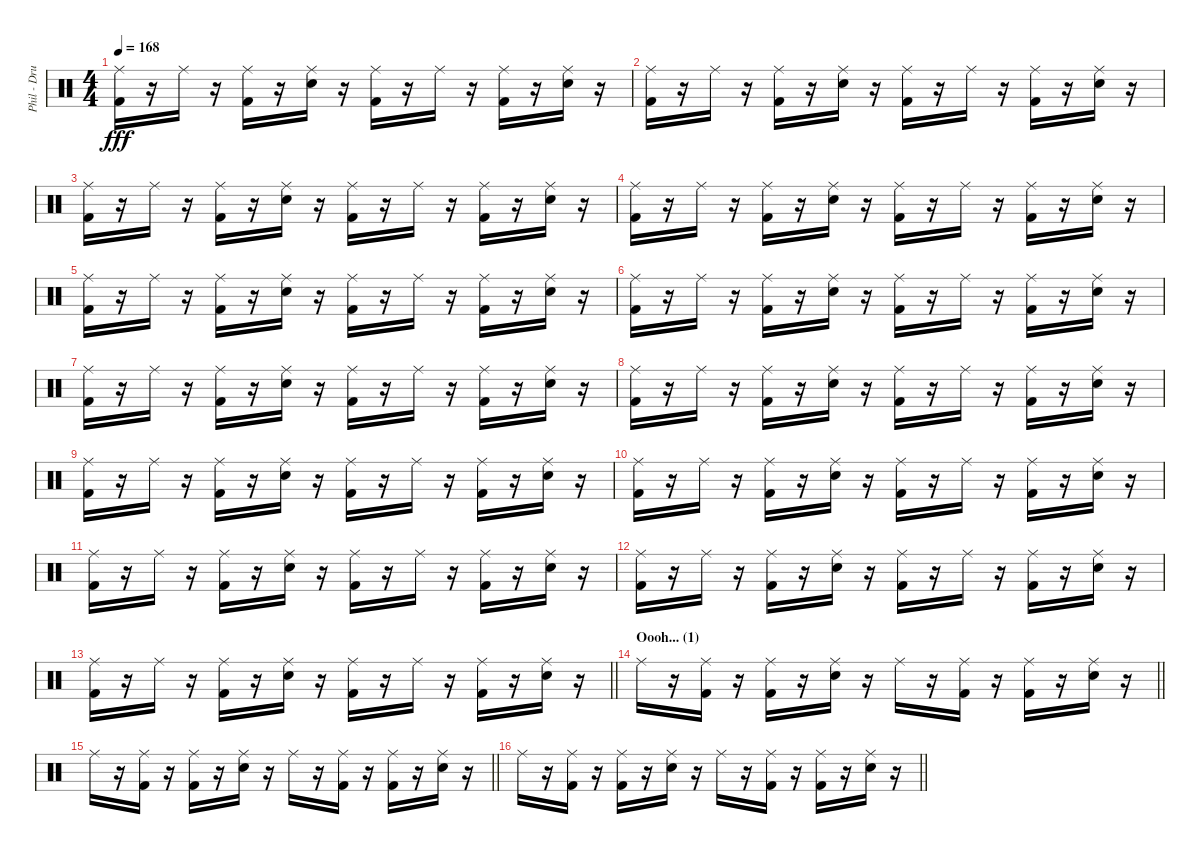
\track ("Phil - Drums" "Phil - Dru") {instrument percussion}
\staff {score}
\articulation defaults
\ts (4 4)
\tempo 168
\clef neutral
\ks c
("Ride (middle)" "Kick (hit) 2").16{dy fff} r.16 "Ride (middle)".16 r.16 ("Ride (middle)" "Kick (hit) 2").16 r.16 ("Ride (middle)" "Electric Snare (hit)").16 r.16 ("Ride (middle)" "Kick (hit) 2").16 r.16 "Ride (middle)".16 r.16 ("Ride (middle)" "Kick (hit) 2").16 r.16 ("Ride (middle)" "Electric Snare (hit)").16 r.16 |
("Ride (middle)" "Kick (hit) 2").16 r.16 "Ride (middle)".16 r.16 ("Ride (middle)" "Kick (hit) 2").16 r.16 ("Ride (middle)" "Electric Snare (hit)").16 r.16 ("Ride (middle)" "Kick (hit) 2").16 r.16 "Ride (middle)".16 r.16 ("Ride (middle)" "Kick (hit) 2").16 r.16 ("Ride (middle)" "Electric Snare (hit)").16 r.16 |
("Ride (middle)" "Kick (hit) 2").16 r.16 "Ride (middle)".16 r.16 ("Ride (middle)" "Kick (hit) 2").16 r.16 ("Ride (middle)" "Electric Snare (hit)").16 r.16 ("Ride (middle)" "Kick (hit) 2").16 r.16 "Ride (middle)".16 r.16 ("Ride (middle)" "Kick (hit) 2").16 r.16 ("Ride (middle)" "Electric Snare (hit)").16 r.16 |
("Ride (middle)" "Kick (hit) 2").16 r.16 "Ride (middle)".16 r.16 ("Ride (middle)" "Kick (hit) 2").16 r.16 ("Ride (middle)" "Electric Snare (hit)").16 r.16 ("Ride (middle)" "Kick (hit) 2").16 r.16 "Ride (middle)".16 r.16 ("Ride (middle)" "Kick (hit) 2").16 r.16 ("Ride (middle)" "Electric Snare (hit)").16 r.16 |
("Ride (middle)" "Kick (hit) 2").16 r.16 "Ride (middle)".16 r.16 ("Ride (middle)" "Kick (hit) 2").16 r.16 ("Ride (middle)" "Electric Snare (hit)").16 r.16 ("Ride (middle)" "Kick (hit) 2").16 r.16 "Ride (middle)".16 r.16 ("Ride (middle)" "Kick (hit) 2").16 r.16 ("Ride (middle)" "Electric Snare (hit)").16 r.16 |
("Ride (middle)" "Kick (hit) 2").16 r.16 "Ride (middle)".16 r.16 ("Ride (middle)" "Kick (hit) 2").16 r.16 ("Ride (middle)" "Electric Snare (hit)").16 r.16 ("Ride (middle)" "Kick (hit) 2").16 r.16 "Ride (middle)".16 r.16 ("Ride (middle)" "Kick (hit) 2").16 r.16 ("Ride (middle)" "Electric Snare (hit)").16 r.16 |
("Ride (middle)" "Kick (hit) 2").16 r.16 "Ride (middle)".16 r.16 ("Ride (middle)" "Kick (hit) 2").16 r.16 ("Ride (middle)" "Electric Snare (hit)").16 r.16 ("Ride (middle)" "Kick (hit) 2").16 r.16 "Ride (middle)".16 r.16 ("Ride (middle)" "Kick (hit) 2").16 r.16 ("Ride (middle)" "Electric Snare (hit)").16 r.16 |
("Ride (middle)" "Kick (hit) 2").16 r.16 "Ride (middle)".16 r.16 ("Ride (middle)" "Kick (hit) 2").16 r.16 ("Ride (middle)" "Electric Snare (hit)").16 r.16 ("Ride (middle)" "Kick (hit) 2").16 r.16 "Ride (middle)".16 r.16 ("Ride (middle)" "Kick (hit) 2").16 r.16 ("Ride (middle)" "Electric Snare (hit)").16 r.16 |
("Ride (middle)" "Kick (hit) 2").16 r.16 "Ride (middle)".16 r.16 ("Ride (middle)" "Kick (hit) 2").16 r.16 ("Ride (middle)" "Electric Snare (hit)").16 r.16 ("Ride (middle)" "Kick (hit) 2").16 r.16 "Ride (middle)".16 r.16 ("Ride (middle)" "Kick (hit) 2").16 r.16 ("Ride (middle)" "Electric Snare (hit)").16 r.16 |
("Ride (middle)" "Kick (hit) 2").16 r.16 "Ride (middle)".16 r.16 ("Ride (middle)" "Kick (hit) 2").16 r.16 ("Ride (middle)" "Electric Snare (hit)").16 r.16 ("Ride (middle)" "Kick (hit) 2").16 r.16 "Ride (middle)".16 r.16 ("Ride (middle)" "Kick (hit) 2").16 r.16 ("Ride (middle)" "Electric Snare (hit)").16 r.16 |
("Ride (middle)" "Kick (hit) 2").16 r.16 "Ride (middle)".16 r.16 ("Ride (middle)" "Kick (hit) 2").16 r.16 ("Ride (middle)" "Electric Snare (hit)").16 r.16 ("Ride (middle)" "Kick (hit) 2").16 r.16 "Ride (middle)".16 r.16 ("Ride (middle)" "Kick (hit) 2").16 r.16 ("Ride (middle)" "Electric Snare (hit)").16 r.16 |
("Ride (middle)" "Kick (hit) 2").16 r.16 "Ride (middle)".16 r.16 ("Ride (middle)" "Kick (hit) 2").16 r.16 ("Ride (middle)" "Electric Snare (hit)").16 r.16 ("Ride (middle)" "Kick (hit) 2").16 r.16 "Ride (middle)".16 r.16 ("Ride (middle)" "Kick (hit) 2").16 r.16 ("Ride (middle)" "Electric Snare (hit)").16 r.16 |
\barLineRight lightlight
("Ride (middle)" "Kick (hit) 2").16 r.16 "Ride (middle)".16 r.16 ("Ride (middle)" "Kick (hit) 2").16 r.16 ("Ride (middle)" "Electric Snare (hit)").16 r.16 ("Ride (middle)" "Kick (hit) 2").16 r.16 "Ride (middle)".16 r.16 ("Ride (middle)" "Kick (hit) 2").16 r.16 ("Ride (middle)" "Electric Snare (hit)").16 r.16 |
\section ("" "Oooh... (1)")
\barLineRight lightlight "Ride (middle)".16
r.16 ("Ride (middle)" "Kick (hit) 2").16 r.16 ("Ride (middle)" "Kick (hit) 2").16 r.16 ("Ride (middle)" "Electric Snare (hit)").16 r.16 "Ride (middle)".16 r.16 ("Ride (middle)" "Kick (hit) 2").16 r.16 ("Ride (middle)" "Kick (hit) 2").16 r.16 ("Ride (middle)" "Electric Snare (hit)").16 r.16 |
\barLineRight lightlight "Ride (middle)".16
r.16 ("Ride (middle)" "Kick (hit) 2").16 r.16 ("Ride (middle)" "Kick (hit) 2").16 r.16 ("Ride (middle)" "Electric Snare (hit)").16 r.16 "Ride (middle)".16 r.16 ("Ride (middle)" "Kick (hit) 2").16 r.16 ("Ride (middle)" "Kick (hit) 2").16 r.16 ("Ride (middle)" "Electric Snare (hit)").16 r.16 |
\barLineRight lightlight "Ride (middle)".16
r.16 ("Ride (middle)" "Kick (hit) 2").16 r.16 ("Ride (middle)" "Kick (hit) 2").16 r.16 ("Ride (middle)" "Electric Snare (hit)").16 r.16 "Ride (middle)".16 r.16 ("Ride (middle)" "Kick (hit) 2").16 r.16 ("Ride (middle)" "Kick (hit) 2").16 r.16 ("Ride (middle)" "Electric Snare (hit)").16 r.16
